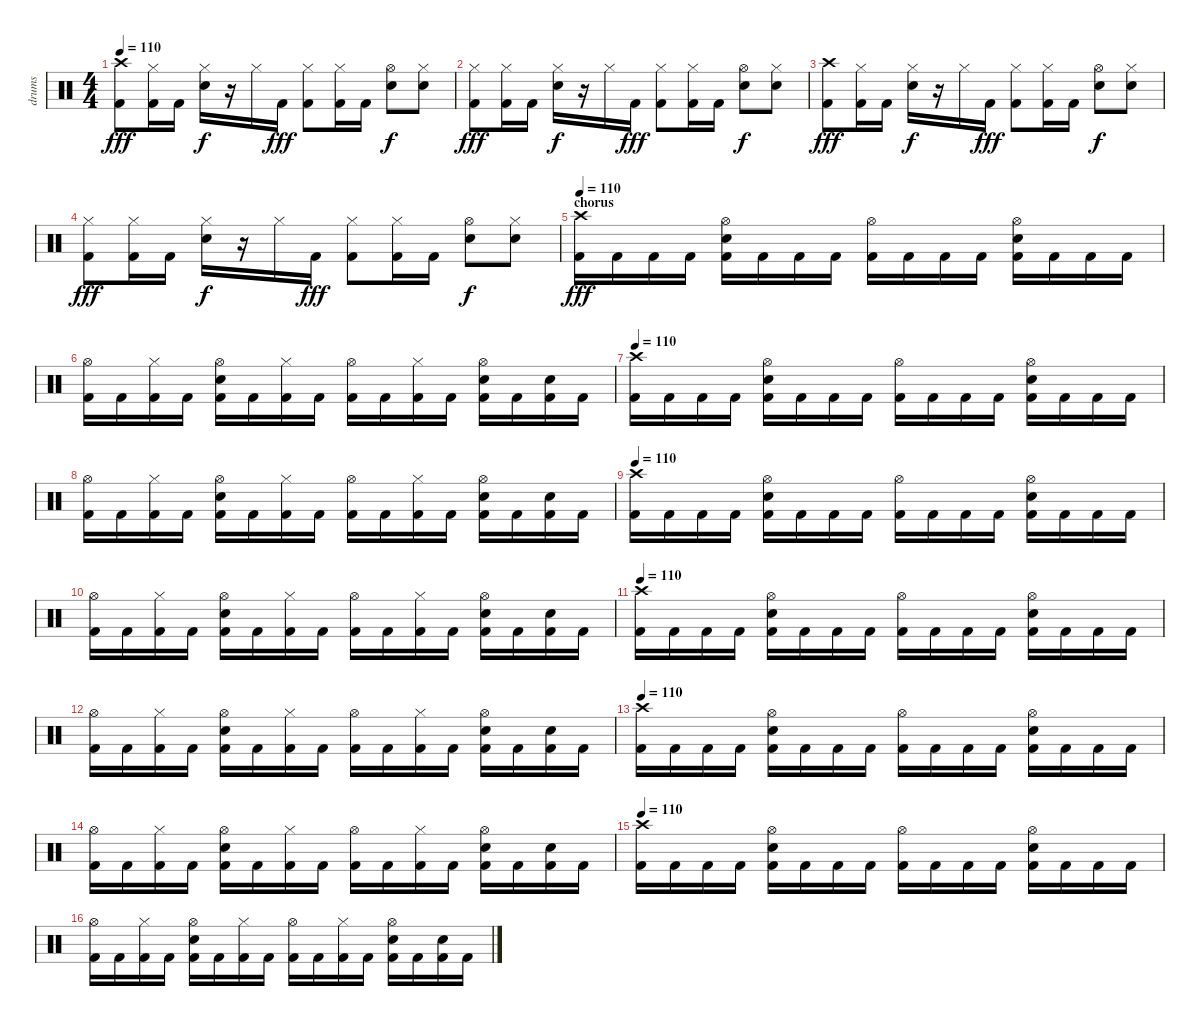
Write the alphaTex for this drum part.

\track ("drums" "drums") {instrument percussion}
\staff {score}
\articulation defaults
\ts (4 4)
\tempo 110
\clef neutral
\ks c
("Crash high (hit)" "Kick (hit) 2").8{dy fff} ("Hi-Hat (closed)" "Kick (hit) 2").16 "Kick (hit) 2".16 ("Hi-Hat (closed)" "Snare (hit) 2").16{dy f} r.16 "Hi-Hat (closed)".16 "Kick (hit) 2".16{dy fff} ("Hi-Hat (closed)" "Kick (hit) 2").8 ("Hi-Hat (closed)" "Kick (hit) 2").16 "Kick (hit) 2".16 ("Hi-Hat (open)" "Snare (hit) 2").8{dy f} ("Hi-Hat (closed)" "Snare (hit) 2").8 |
("Hi-Hat (closed)" "Kick (hit) 2").8{dy fff} ("Hi-Hat (closed)" "Kick (hit) 2").16 "Kick (hit) 2".16 ("Hi-Hat (closed)" "Snare (hit) 2").16{dy f} r.16 "Hi-Hat (closed)".16 "Kick (hit) 2".16{dy fff} ("Hi-Hat (closed)" "Kick (hit) 2").8 ("Hi-Hat (closed)" "Kick (hit) 2").16 "Kick (hit) 2".16 ("Hi-Hat (open)" "Snare (hit) 2").8{dy f} ("Hi-Hat (closed)" "Snare (hit) 2").8 |
("Crash high (hit)" "Kick (hit) 2").8{dy fff} ("Hi-Hat (closed)" "Kick (hit) 2").16 "Kick (hit) 2".16 ("Hi-Hat (closed)" "Snare (hit) 2").16{dy f} r.16 "Hi-Hat (closed)".16 "Kick (hit) 2".16{dy fff} ("Hi-Hat (closed)" "Kick (hit) 2").8 ("Hi-Hat (closed)" "Kick (hit) 2").16 "Kick (hit) 2".16 ("Hi-Hat (open)" "Snare (hit) 2").8{dy f} ("Hi-Hat (closed)" "Snare (hit) 2").8 |
("Hi-Hat (closed)" "Kick (hit) 2").8{dy fff} ("Hi-Hat (closed)" "Kick (hit) 2").16 "Kick (hit) 2".16 ("Hi-Hat (closed)" "Snare (hit) 2").16{dy f} r.16 "Hi-Hat (closed)".16 "Kick (hit) 2".16{dy fff} ("Hi-Hat (closed)" "Kick (hit) 2").8 ("Hi-Hat (closed)" "Kick (hit) 2").16 "Kick (hit) 2".16 ("Hi-Hat (open)" "Snare (hit) 2").8{dy f} ("Hi-Hat (closed)" "Snare (hit) 2").8 |
\section ("" "chorus")
\tempo 110
("Crash high (hit)" "Kick (hit) 2").16{dy fff} "Kick (hit) 2".16 "Kick (hit) 2".16 "Kick (hit) 2".16 ("Hi-Hat (open)" "Snare (hit) 2" "Kick (hit) 2").16 "Kick (hit) 2".16 "Kick (hit) 2".16 "Kick (hit) 2".16 ("Hi-Hat (open)" "Kick (hit) 2").16 "Kick (hit) 2".16 "Kick (hit) 2".16 "Kick (hit) 2".16 ("Hi-Hat (open)" "Snare (hit) 2" "Kick (hit) 2").16 "Kick (hit) 2".16 "Kick (hit) 2".16 "Kick (hit) 2".16 |
("Hi-Hat (open)" "Kick (hit) 2").16 "Kick (hit) 2".16 ("Hi-Hat (closed)" "Kick (hit) 2").16 "Kick (hit) 2".16 ("Hi-Hat (open)" "Snare (hit) 2" "Kick (hit) 2").16 "Kick (hit) 2".16 ("Hi-Hat (closed)" "Kick (hit) 2").16 "Kick (hit) 2".16 ("Hi-Hat (open)" "Kick (hit) 2").16 "Kick (hit) 2".16 ("Hi-Hat (closed)" "Kick (hit) 2").16 "Kick (hit) 2".16 ("Hi-Hat (open)" "Snare (hit) 2" "Kick (hit) 2").16 "Kick (hit) 2".16 ("Snare (hit) 2" "Kick (hit) 2").16 "Kick (hit) 2".16 |
\tempo 110
("Crash high (hit)" "Kick (hit) 2").16 "Kick (hit) 2".16 "Kick (hit) 2".16 "Kick (hit) 2".16 ("Hi-Hat (open)" "Snare (hit) 2" "Kick (hit) 2").16 "Kick (hit) 2".16 "Kick (hit) 2".16 "Kick (hit) 2".16 ("Hi-Hat (open)" "Kick (hit) 2").16 "Kick (hit) 2".16 "Kick (hit) 2".16 "Kick (hit) 2".16 ("Hi-Hat (open)" "Snare (hit) 2" "Kick (hit) 2").16 "Kick (hit) 2".16 "Kick (hit) 2".16 "Kick (hit) 2".16 |
("Hi-Hat (open)" "Kick (hit) 2").16 "Kick (hit) 2".16 ("Hi-Hat (closed)" "Kick (hit) 2").16 "Kick (hit) 2".16 ("Hi-Hat (open)" "Snare (hit) 2" "Kick (hit) 2").16 "Kick (hit) 2".16 ("Hi-Hat (closed)" "Kick (hit) 2").16 "Kick (hit) 2".16 ("Hi-Hat (open)" "Kick (hit) 2").16 "Kick (hit) 2".16 ("Hi-Hat (closed)" "Kick (hit) 2").16 "Kick (hit) 2".16 ("Hi-Hat (open)" "Snare (hit) 2" "Kick (hit) 2").16 "Kick (hit) 2".16 ("Snare (hit) 2" "Kick (hit) 2").16 "Kick (hit) 2".16 |
\tempo 110
("Crash high (hit)" "Kick (hit) 2").16 "Kick (hit) 2".16 "Kick (hit) 2".16 "Kick (hit) 2".16 ("Hi-Hat (open)" "Snare (hit) 2" "Kick (hit) 2").16 "Kick (hit) 2".16 "Kick (hit) 2".16 "Kick (hit) 2".16 ("Hi-Hat (open)" "Kick (hit) 2").16 "Kick (hit) 2".16 "Kick (hit) 2".16 "Kick (hit) 2".16 ("Hi-Hat (open)" "Snare (hit) 2" "Kick (hit) 2").16 "Kick (hit) 2".16 "Kick (hit) 2".16 "Kick (hit) 2".16 |
("Hi-Hat (open)" "Kick (hit) 2").16 "Kick (hit) 2".16 ("Hi-Hat (closed)" "Kick (hit) 2").16 "Kick (hit) 2".16 ("Hi-Hat (open)" "Snare (hit) 2" "Kick (hit) 2").16 "Kick (hit) 2".16 ("Hi-Hat (closed)" "Kick (hit) 2").16 "Kick (hit) 2".16 ("Hi-Hat (open)" "Kick (hit) 2").16 "Kick (hit) 2".16 ("Hi-Hat (closed)" "Kick (hit) 2").16 "Kick (hit) 2".16 ("Hi-Hat (open)" "Snare (hit) 2" "Kick (hit) 2").16 "Kick (hit) 2".16 ("Snare (hit) 2" "Kick (hit) 2").16 "Kick (hit) 2".16 |
\tempo 110
("Crash high (hit)" "Kick (hit) 2").16 "Kick (hit) 2".16 "Kick (hit) 2".16 "Kick (hit) 2".16 ("Hi-Hat (open)" "Snare (hit) 2" "Kick (hit) 2").16 "Kick (hit) 2".16 "Kick (hit) 2".16 "Kick (hit) 2".16 ("Hi-Hat (open)" "Kick (hit) 2").16 "Kick (hit) 2".16 "Kick (hit) 2".16 "Kick (hit) 2".16 ("Hi-Hat (open)" "Snare (hit) 2" "Kick (hit) 2").16 "Kick (hit) 2".16 "Kick (hit) 2".16 "Kick (hit) 2".16 |
("Hi-Hat (open)" "Kick (hit) 2").16 "Kick (hit) 2".16 ("Hi-Hat (closed)" "Kick (hit) 2").16 "Kick (hit) 2".16 ("Hi-Hat (open)" "Snare (hit) 2" "Kick (hit) 2").16 "Kick (hit) 2".16 ("Hi-Hat (closed)" "Kick (hit) 2").16 "Kick (hit) 2".16 ("Hi-Hat (open)" "Kick (hit) 2").16 "Kick (hit) 2".16 ("Hi-Hat (closed)" "Kick (hit) 2").16 "Kick (hit) 2".16 ("Hi-Hat (open)" "Snare (hit) 2" "Kick (hit) 2").16 "Kick (hit) 2".16 ("Snare (hit) 2" "Kick (hit) 2").16 "Kick (hit) 2".16 |
\tempo 110
("Crash high (hit)" "Kick (hit) 2").16 "Kick (hit) 2".16 "Kick (hit) 2".16 "Kick (hit) 2".16 ("Hi-Hat (open)" "Snare (hit) 2" "Kick (hit) 2").16 "Kick (hit) 2".16 "Kick (hit) 2".16 "Kick (hit) 2".16 ("Hi-Hat (open)" "Kick (hit) 2").16 "Kick (hit) 2".16 "Kick (hit) 2".16 "Kick (hit) 2".16 ("Hi-Hat (open)" "Snare (hit) 2" "Kick (hit) 2").16 "Kick (hit) 2".16 "Kick (hit) 2".16 "Kick (hit) 2".16 |
("Hi-Hat (open)" "Kick (hit) 2").16 "Kick (hit) 2".16 ("Hi-Hat (closed)" "Kick (hit) 2").16 "Kick (hit) 2".16 ("Hi-Hat (open)" "Snare (hit) 2" "Kick (hit) 2").16 "Kick (hit) 2".16 ("Hi-Hat (closed)" "Kick (hit) 2").16 "Kick (hit) 2".16 ("Hi-Hat (open)" "Kick (hit) 2").16 "Kick (hit) 2".16 ("Hi-Hat (closed)" "Kick (hit) 2").16 "Kick (hit) 2".16 ("Hi-Hat (open)" "Snare (hit) 2" "Kick (hit) 2").16 "Kick (hit) 2".16 ("Snare (hit) 2" "Kick (hit) 2").16 "Kick (hit) 2".16 |
\tempo 110
("Crash high (hit)" "Kick (hit) 2").16 "Kick (hit) 2".16 "Kick (hit) 2".16 "Kick (hit) 2".16 ("Hi-Hat (open)" "Snare (hit) 2" "Kick (hit) 2").16 "Kick (hit) 2".16 "Kick (hit) 2".16 "Kick (hit) 2".16 ("Hi-Hat (open)" "Kick (hit) 2").16 "Kick (hit) 2".16 "Kick (hit) 2".16 "Kick (hit) 2".16 ("Hi-Hat (open)" "Snare (hit) 2" "Kick (hit) 2").16 "Kick (hit) 2".16 "Kick (hit) 2".16 "Kick (hit) 2".16 |
("Hi-Hat (open)" "Kick (hit) 2").16 "Kick (hit) 2".16 ("Hi-Hat (closed)" "Kick (hit) 2").16 "Kick (hit) 2".16 ("Hi-Hat (open)" "Snare (hit) 2" "Kick (hit) 2").16 "Kick (hit) 2".16 ("Hi-Hat (closed)" "Kick (hit) 2").16 "Kick (hit) 2".16 ("Hi-Hat (open)" "Kick (hit) 2").16 "Kick (hit) 2".16 ("Hi-Hat (closed)" "Kick (hit) 2").16 "Kick (hit) 2".16 ("Hi-Hat (open)" "Snare (hit) 2" "Kick (hit) 2").16 "Kick (hit) 2".16 ("Snare (hit) 2" "Kick (hit) 2").16 "Kick (hit) 2".16
